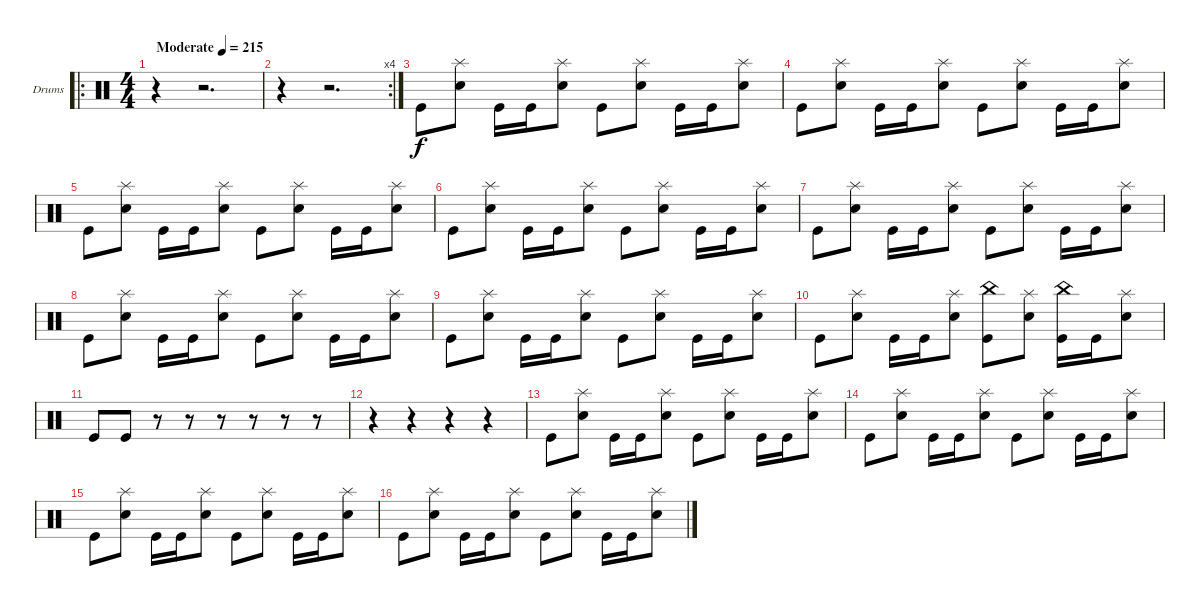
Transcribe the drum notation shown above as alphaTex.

\bracketExtendMode groupsimilarinstruments
\firstSystemTrackNameOrientation horizontal
\otherSystemsTrackNameOrientation horizontal
\track ("Dave McClain" "Drums") {instrument percussion}
\staff {score}
\articulation defaults
\ro
\ts (4 4)
\beaming (8 2 2 2 2)
\tempo (215 "Moderate")
\clef neutral
\ks c
r.4{dy f} r.2{d} |
\rc 4
r.4 r.2{d} |
"Kick (hit)".8 ("Splash (hit)" "Snare (hit) 2").8 "Kick (hit)".16 "Kick (hit)".16 ("Splash (hit)" "Snare (hit) 2").8 "Kick (hit)".8 ("Splash (hit)" "Snare (hit) 2").8 "Kick (hit)".16 "Kick (hit)".16 ("Splash (hit)" "Snare (hit) 2").8 |
"Kick (hit)".8 ("Splash (hit)" "Snare (hit) 2").8 "Kick (hit)".16 "Kick (hit)".16 ("Splash (hit)" "Snare (hit) 2").8 "Kick (hit)".8 ("Splash (hit)" "Snare (hit) 2").8 "Kick (hit)".16 "Kick (hit)".16 ("Splash (hit)" "Snare (hit) 2").8 |
"Kick (hit)".8 ("Splash (hit)" "Snare (hit) 2").8 "Kick (hit)".16 "Kick (hit)".16 ("Splash (hit)" "Snare (hit) 2").8 "Kick (hit)".8 ("Splash (hit)" "Snare (hit) 2").8 "Kick (hit)".16 "Kick (hit)".16 ("Splash (hit)" "Snare (hit) 2").8 |
"Kick (hit)".8 ("Splash (hit)" "Snare (hit) 2").8 "Kick (hit)".16 "Kick (hit)".16 ("Splash (hit)" "Snare (hit) 2").8 "Kick (hit)".8 ("Splash (hit)" "Snare (hit) 2").8 "Kick (hit)".16 "Kick (hit)".16 ("Splash (hit)" "Snare (hit) 2").8 |
"Kick (hit)".8 ("Splash (hit)" "Snare (hit) 2").8 "Kick (hit)".16 "Kick (hit)".16 ("Splash (hit)" "Snare (hit) 2").8 "Kick (hit)".8 ("Splash (hit)" "Snare (hit) 2").8 "Kick (hit)".16 "Kick (hit)".16 ("Splash (hit)" "Snare (hit) 2").8 |
"Kick (hit)".8 ("Splash (hit)" "Snare (hit) 2").8 "Kick (hit)".16 "Kick (hit)".16 ("Splash (hit)" "Snare (hit) 2").8 "Kick (hit)".8 ("Splash (hit)" "Snare (hit) 2").8 "Kick (hit)".16 "Kick (hit)".16 ("Splash (hit)" "Snare (hit) 2").8 |
"Kick (hit)".8 ("Splash (hit)" "Snare (hit) 2").8 "Kick (hit)".16 "Kick (hit)".16 ("Splash (hit)" "Snare (hit) 2").8 "Kick (hit)".8 ("Splash (hit)" "Snare (hit) 2").8 "Kick (hit)".16 "Kick (hit)".16 ("Splash (hit)" "Snare (hit) 2").8 |
"Kick (hit)".8 ("Splash (hit)" "Snare (hit) 2").8 "Kick (hit)".16 "Kick (hit)".16 ("Splash (hit)" "Snare (hit) 2").8 ("China (hit)" "Kick (hit)").8 ("Splash (hit)" "Snare (hit) 2").8 ("China (hit)" "Kick (hit)").16 "Kick (hit)".16 ("Splash (hit)" "Snare (hit) 2").8 |
"Kick (hit)".8 "Kick (hit)".8 r.8 r.8 r.8 r.8 r.8 r.8 |
r.4 r.4 r.4 r.4 |
"Kick (hit)".8 ("Splash (hit)" "Snare (hit) 2").8 "Kick (hit)".16 "Kick (hit)".16 ("Splash (hit)" "Snare (hit) 2").8 "Kick (hit)".8 ("Splash (hit)" "Snare (hit) 2").8 "Kick (hit)".16 "Kick (hit)".16 ("Splash (hit)" "Snare (hit) 2").8 |
"Kick (hit)".8 ("Splash (hit)" "Snare (hit) 2").8 "Kick (hit)".16 "Kick (hit)".16 ("Splash (hit)" "Snare (hit) 2").8 "Kick (hit)".8 ("Splash (hit)" "Snare (hit) 2").8 "Kick (hit)".16 "Kick (hit)".16 ("Splash (hit)" "Snare (hit) 2").8 |
"Kick (hit)".8 ("Splash (hit)" "Snare (hit) 2").8 "Kick (hit)".16 "Kick (hit)".16 ("Splash (hit)" "Snare (hit) 2").8 "Kick (hit)".8 ("Splash (hit)" "Snare (hit) 2").8 "Kick (hit)".16 "Kick (hit)".16 ("Splash (hit)" "Snare (hit) 2").8 |
"Kick (hit)".8 ("Splash (hit)" "Snare (hit) 2").8 "Kick (hit)".16 "Kick (hit)".16 ("Splash (hit)" "Snare (hit) 2").8 "Kick (hit)".8 ("Splash (hit)" "Snare (hit) 2").8 "Kick (hit)".16 "Kick (hit)".16 ("Splash (hit)" "Snare (hit) 2").8
